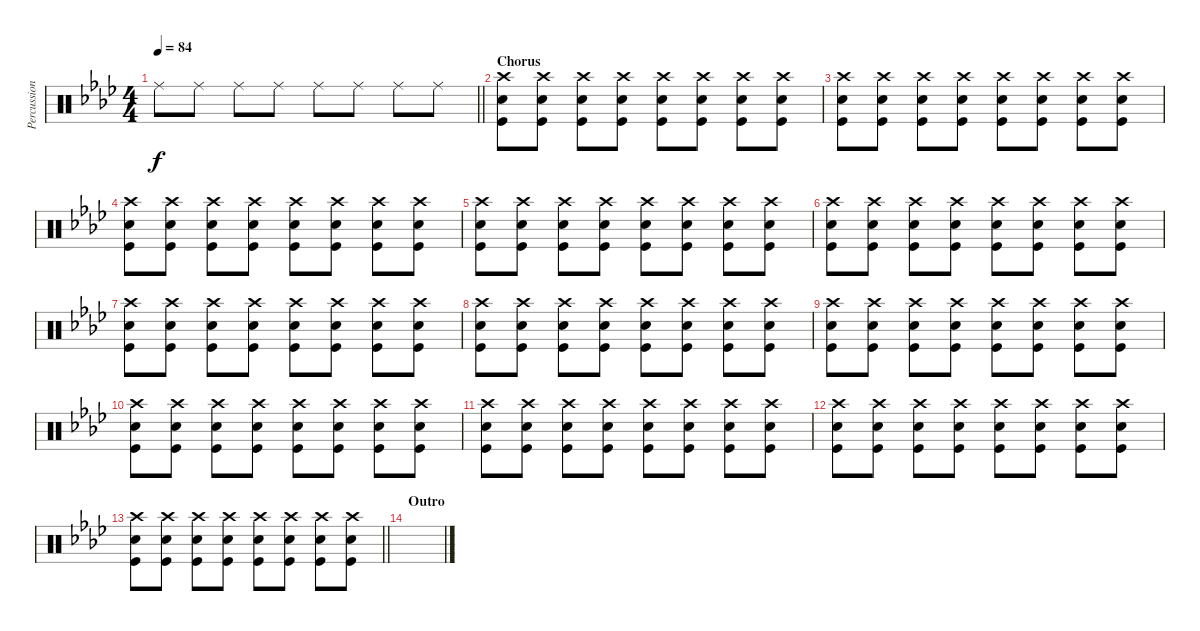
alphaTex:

\track ("Percussion" "Percussion") {instrument percussion}
\staff {score}
\articulation defaults
\ts (4 4)
\tempo 84
\clef neutral
\barLineRight lightlight
\ks ab "Ride (middle)".8{dy f} "Ride (middle)".8 "Ride (middle)".8 "Ride (middle)".8 "Ride (middle)".8 "Ride (middle)".8 "Ride (middle)".8 "Ride (middle)".8
|
\section ("" "Chorus")
("Snare (hit) 2" "Kick (hit)" "Crash high (hit)").8 ("Snare (hit) 2" "Kick (hit)" "Crash high (hit)").8 ("Snare (hit) 2" "Kick (hit)" "Crash high (hit)").8 ("Snare (hit) 2" "Kick (hit)" "Crash high (hit)").8 ("Snare (hit) 2" "Kick (hit)" "Crash high (hit)").8 ("Snare (hit) 2" "Kick (hit)" "Crash high (hit)").8 ("Snare (hit) 2" "Kick (hit)" "Crash high (hit)").8 ("Snare (hit) 2" "Kick (hit)" "Crash high (hit)").8 |
("Snare (hit) 2" "Kick (hit)" "Crash high (hit)").8 ("Snare (hit) 2" "Kick (hit)" "Crash high (hit)").8 ("Snare (hit) 2" "Kick (hit)" "Crash high (hit)").8 ("Snare (hit) 2" "Kick (hit)" "Crash high (hit)").8 ("Snare (hit) 2" "Kick (hit)" "Crash high (hit)").8 ("Snare (hit) 2" "Kick (hit)" "Crash high (hit)").8 ("Snare (hit) 2" "Kick (hit)" "Crash high (hit)").8 ("Snare (hit) 2" "Kick (hit)" "Crash high (hit)").8 |
("Snare (hit) 2" "Kick (hit)" "Crash high (hit)").8 ("Snare (hit) 2" "Kick (hit)" "Crash high (hit)").8 ("Snare (hit) 2" "Kick (hit)" "Crash high (hit)").8 ("Snare (hit) 2" "Kick (hit)" "Crash high (hit)").8 ("Snare (hit) 2" "Kick (hit)" "Crash high (hit)").8 ("Snare (hit) 2" "Kick (hit)" "Crash high (hit)").8 ("Snare (hit) 2" "Kick (hit)" "Crash high (hit)").8 ("Snare (hit) 2" "Kick (hit)" "Crash high (hit)").8 |
("Snare (hit) 2" "Kick (hit)" "Crash high (hit)").8 ("Snare (hit) 2" "Kick (hit)" "Crash high (hit)").8 ("Snare (hit) 2" "Kick (hit)" "Crash high (hit)").8 ("Snare (hit) 2" "Kick (hit)" "Crash high (hit)").8 ("Snare (hit) 2" "Kick (hit)" "Crash high (hit)").8 ("Snare (hit) 2" "Kick (hit)" "Crash high (hit)").8 ("Snare (hit) 2" "Kick (hit)" "Crash high (hit)").8 ("Snare (hit) 2" "Kick (hit)" "Crash high (hit)").8 |
("Snare (hit) 2" "Kick (hit)" "Crash high (hit)").8 ("Snare (hit) 2" "Kick (hit)" "Crash high (hit)").8 ("Snare (hit) 2" "Kick (hit)" "Crash high (hit)").8 ("Snare (hit) 2" "Kick (hit)" "Crash high (hit)").8 ("Snare (hit) 2" "Kick (hit)" "Crash high (hit)").8 ("Snare (hit) 2" "Kick (hit)" "Crash high (hit)").8 ("Snare (hit) 2" "Kick (hit)" "Crash high (hit)").8 ("Snare (hit) 2" "Kick (hit)" "Crash high (hit)").8 |
("Snare (hit) 2" "Kick (hit)" "Crash high (hit)").8 ("Snare (hit) 2" "Kick (hit)" "Crash high (hit)").8 ("Snare (hit) 2" "Kick (hit)" "Crash high (hit)").8 ("Snare (hit) 2" "Kick (hit)" "Crash high (hit)").8 ("Snare (hit) 2" "Kick (hit)" "Crash high (hit)").8 ("Snare (hit) 2" "Kick (hit)" "Crash high (hit)").8 ("Snare (hit) 2" "Kick (hit)" "Crash high (hit)").8 ("Snare (hit) 2" "Kick (hit)" "Crash high (hit)").8 |
("Snare (hit) 2" "Kick (hit)" "Crash high (hit)").8 ("Snare (hit) 2" "Kick (hit)" "Crash high (hit)").8 ("Snare (hit) 2" "Kick (hit)" "Crash high (hit)").8 ("Snare (hit) 2" "Kick (hit)" "Crash high (hit)").8 ("Snare (hit) 2" "Kick (hit)" "Crash high (hit)").8 ("Snare (hit) 2" "Kick (hit)" "Crash high (hit)").8 ("Snare (hit) 2" "Kick (hit)" "Crash high (hit)").8 ("Snare (hit) 2" "Kick (hit)" "Crash high (hit)").8 |
("Snare (hit) 2" "Kick (hit)" "Crash high (hit)").8 ("Snare (hit) 2" "Kick (hit)" "Crash high (hit)").8 ("Snare (hit) 2" "Kick (hit)" "Crash high (hit)").8 ("Snare (hit) 2" "Kick (hit)" "Crash high (hit)").8 ("Snare (hit) 2" "Kick (hit)" "Crash high (hit)").8 ("Snare (hit) 2" "Kick (hit)" "Crash high (hit)").8 ("Snare (hit) 2" "Kick (hit)" "Crash high (hit)").8 ("Snare (hit) 2" "Kick (hit)" "Crash high (hit)").8 |
("Snare (hit) 2" "Kick (hit)" "Crash high (hit)").8 ("Snare (hit) 2" "Kick (hit)" "Crash high (hit)").8 ("Snare (hit) 2" "Kick (hit)" "Crash high (hit)").8 ("Snare (hit) 2" "Kick (hit)" "Crash high (hit)").8 ("Snare (hit) 2" "Kick (hit)" "Crash high (hit)").8 ("Snare (hit) 2" "Kick (hit)" "Crash high (hit)").8 ("Snare (hit) 2" "Kick (hit)" "Crash high (hit)").8 ("Snare (hit) 2" "Kick (hit)" "Crash high (hit)").8 |
("Snare (hit) 2" "Kick (hit)" "Crash high (hit)").8 ("Snare (hit) 2" "Kick (hit)" "Crash high (hit)").8 ("Snare (hit) 2" "Kick (hit)" "Crash high (hit)").8 ("Snare (hit) 2" "Kick (hit)" "Crash high (hit)").8 ("Snare (hit) 2" "Kick (hit)" "Crash high (hit)").8 ("Snare (hit) 2" "Kick (hit)" "Crash high (hit)").8 ("Snare (hit) 2" "Kick (hit)" "Crash high (hit)").8 ("Snare (hit) 2" "Kick (hit)" "Crash high (hit)").8 |
("Snare (hit) 2" "Kick (hit)" "Crash high (hit)").8 ("Snare (hit) 2" "Kick (hit)" "Crash high (hit)").8 ("Snare (hit) 2" "Kick (hit)" "Crash high (hit)").8 ("Snare (hit) 2" "Kick (hit)" "Crash high (hit)").8 ("Snare (hit) 2" "Kick (hit)" "Crash high (hit)").8 ("Snare (hit) 2" "Kick (hit)" "Crash high (hit)").8 ("Snare (hit) 2" "Kick (hit)" "Crash high (hit)").8 ("Snare (hit) 2" "Kick (hit)" "Crash high (hit)").8 |
\barLineRight lightlight
("Snare (hit) 2" "Kick (hit)" "Crash high (hit)").8 ("Snare (hit) 2" "Kick (hit)" "Crash high (hit)").8 ("Snare (hit) 2" "Kick (hit)" "Crash high (hit)").8 ("Snare (hit) 2" "Kick (hit)" "Crash high (hit)").8 ("Snare (hit) 2" "Kick (hit)" "Crash high (hit)").8 ("Snare (hit) 2" "Kick (hit)" "Crash high (hit)").8 ("Snare (hit) 2" "Kick (hit)" "Crash high (hit)").8 ("Snare (hit) 2" "Kick (hit)" "Crash high (hit)").8 |
\section ("" "Outro")
